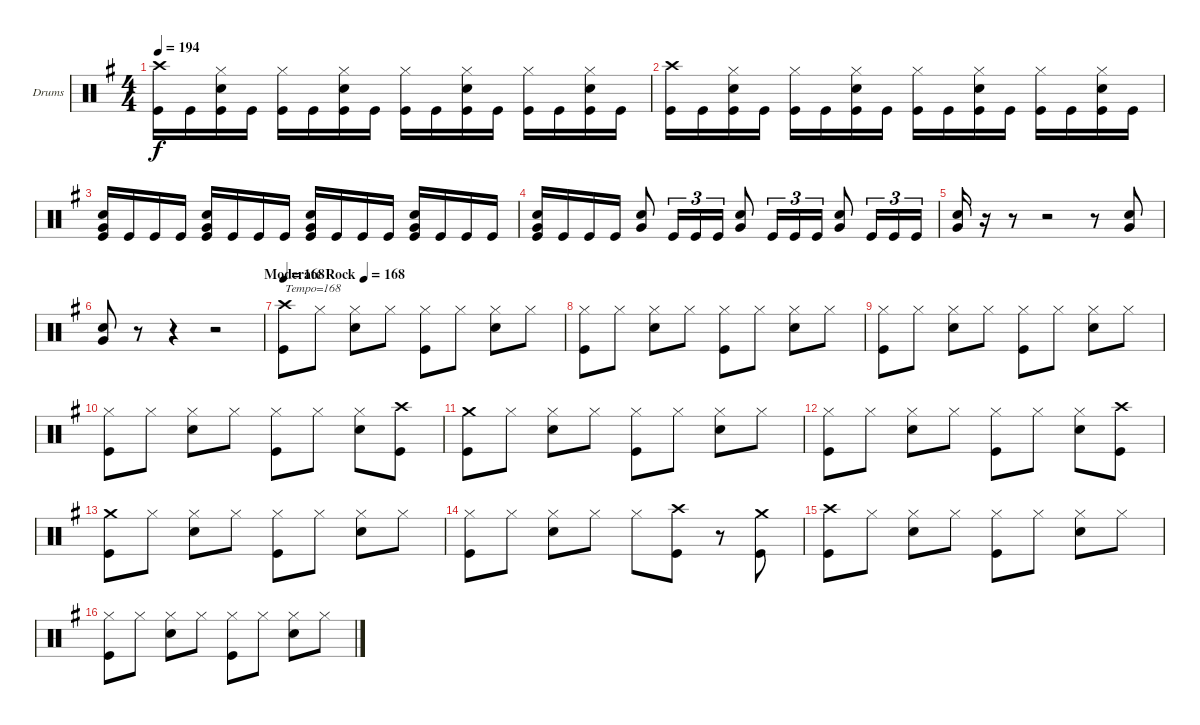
\bracketExtendMode groupsimilarinstruments
\firstSystemTrackNameOrientation horizontal
\otherSystemsTrackNameOrientation horizontal
\track ("Drumkit" "Drums") {instrument percussion}
\staff {score}
\articulation defaults
\ts (4 4)
\tempo 194
\clef neutral
\scale
1.04288
\ks g
("Crash high (hit)" "Kick (hit)").16{dy f} "Kick (hit)".16 ("Hi-Hat (closed)" "Snare (hit) 2" "Kick (hit)").16 "Kick (hit)".16 ("Hi-Hat (closed)" "Kick (hit)").16 "Kick (hit)".16 ("Hi-Hat (closed)" "Snare (hit) 2" "Kick (hit)").16 "Kick (hit)".16 ("Hi-Hat (closed)" "Kick (hit)").16 "Kick (hit)".16 ("Hi-Hat (closed)" "Snare (hit) 2" "Kick (hit)").16 "Kick (hit)".16 ("Hi-Hat (closed)" "Kick (hit)").16 "Kick (hit)".16 ("Hi-Hat (closed)" "Snare (hit) 2" "Kick (hit)").16 "Kick (hit)".16 |
\scale
0.957125 ("Crash high (hit)" "Kick (hit)").16 "Kick (hit)".16 ("Hi-Hat (closed)" "Snare (hit) 2" "Kick (hit)").16 "Kick (hit)".16 ("Hi-Hat (closed)" "Kick (hit)").16 "Kick (hit)".16 ("Hi-Hat (closed)" "Snare (hit) 2" "Kick (hit)").16 "Kick (hit)".16 ("Hi-Hat (closed)" "Kick (hit)").16 "Kick (hit)".16 ("Hi-Hat (closed)" "Snare (hit) 2" "Kick (hit)").16 "Kick (hit)".16 ("Hi-Hat (closed)" "Kick (hit)").16 "Kick (hit)".16 ("Hi-Hat (closed)" "Snare (hit) 2" "Kick (hit)").16 "Kick (hit)".16 |
\scale
1.04288 ("Very Low Tom (hit)" "Snare (hit) 2" "Kick (hit)").16 "Kick (hit)".16 "Kick (hit)".16 "Kick (hit)".16 ("Very Low Tom (hit)" "Snare (hit) 2" "Kick (hit)").16 "Kick (hit)".16 "Kick (hit)".16 "Kick (hit)".16 ("Very Low Tom (hit)" "Snare (hit) 2" "Kick (hit)").16 "Kick (hit)".16 "Kick (hit)".16 "Kick (hit)".16 ("Very Low Tom (hit)" "Snare (hit) 2" "Kick (hit)").16 "Kick (hit)".16 "Kick (hit)".16 "Kick (hit)".16 |
\scale
0.957125 ("Very Low Tom (hit)" "Snare (hit) 2" "Kick (hit)").16 "Kick (hit)".16 "Kick (hit)".16 "Kick (hit)".16 ("Very Low Tom (hit)" "Snare (hit) 2").8 "Kick (hit)".16{tu (3 2)} "Kick (hit)".16{tu (3 2)} "Kick (hit)".16{tu (3 2)} ("Very Low Tom (hit)" "Snare (hit) 2").8 "Kick (hit)".16{tu (3 2)} "Kick (hit)".16{tu (3 2)} "Kick (hit)".16{tu (3 2)} ("Very Low Tom (hit)" "Snare (hit) 2").8 "Kick (hit)".16{tu (3 2)} "Kick (hit)".16{tu (3 2)} "Kick (hit)".16{tu (3 2)} |
\scale
1.04288 ("Very Low Tom (hit)" "Snare (hit) 2").16 r.16 r.8 r.2 r.8 ("Very Low Tom (hit)" "Snare (hit) 2").8 |
\tempo (168 "Moderate Rock" 1)
\scale
0.957125 ("Very Low Tom (hit)" "Snare (hit) 2").8 r.8 r.4 r.2 |
\tempo 168
\scale
1.04288 ("Crash high (hit)" "Kick (hit)").8{txt "Tempo=168"} "Hi-Hat (closed)".8 ("Hi-Hat (closed)" "Snare (hit) 2").8 "Hi-Hat (closed)".8 ("Hi-Hat (closed)" "Kick (hit)").8 "Hi-Hat (closed)".8 ("Hi-Hat (closed)" "Snare (hit) 2").8 "Hi-Hat (closed)".8 |
\scale
0.957125 ("Hi-Hat (closed)" "Kick (hit)").8 "Hi-Hat (closed)".8 ("Hi-Hat (closed)" "Snare (hit) 2").8 "Hi-Hat (closed)".8 ("Hi-Hat (closed)" "Kick (hit)").8 "Hi-Hat (closed)".8 ("Hi-Hat (closed)" "Snare (hit) 2").8 "Hi-Hat (closed)".8 |
\scale
1.04288 ("Hi-Hat (closed)" "Kick (hit)").8 "Hi-Hat (closed)".8 ("Hi-Hat (closed)" "Snare (hit) 2").8 "Hi-Hat (closed)".8 ("Hi-Hat (closed)" "Kick (hit)").8 "Hi-Hat (closed)".8 ("Hi-Hat (closed)" "Snare (hit) 2").8 "Hi-Hat (closed)".8 |
\scale
0.957125 ("Hi-Hat (closed)" "Kick (hit)").8 "Hi-Hat (closed)".8 ("Hi-Hat (closed)" "Snare (hit) 2").8 "Hi-Hat (closed)".8 ("Hi-Hat (closed)" "Kick (hit)").8 "Hi-Hat (closed)".8 ("Hi-Hat (closed)" "Snare (hit) 2").8 ("Crash high (hit)" "Kick (hit)").8 |
\scale
1.04288 ("Crash medium (hit)" "Kick (hit)").8 "Hi-Hat (closed)".8 ("Hi-Hat (closed)" "Snare (hit) 2").8 "Hi-Hat (closed)".8 ("Hi-Hat (closed)" "Kick (hit)").8 "Hi-Hat (closed)".8 ("Hi-Hat (closed)" "Snare (hit) 2").8 "Hi-Hat (closed)".8 |
\scale
0.957125 ("Hi-Hat (closed)" "Kick (hit)").8 "Hi-Hat (closed)".8 ("Hi-Hat (closed)" "Snare (hit) 2").8 "Hi-Hat (closed)".8 ("Hi-Hat (closed)" "Kick (hit)").8 "Hi-Hat (closed)".8 ("Hi-Hat (closed)" "Snare (hit) 2").8 ("Crash high (hit)" "Kick (hit)").8 |
\scale
1.04288 ("Crash medium (hit)" "Kick (hit)").8 "Hi-Hat (closed)".8 ("Hi-Hat (closed)" "Snare (hit) 2").8 "Hi-Hat (closed)".8 ("Hi-Hat (closed)" "Kick (hit)").8 "Hi-Hat (closed)".8 ("Hi-Hat (closed)" "Snare (hit) 2").8 "Hi-Hat (closed)".8 |
\scale
0.957125 ("Hi-Hat (closed)" "Kick (hit)").8 "Hi-Hat (closed)".8 ("Hi-Hat (closed)" "Snare (hit) 2").8 "Hi-Hat (closed)".8 "Hi-Hat (closed)".8 ("Crash high (hit)" "Kick (hit)").8 r.8 ("Crash medium (hit)" "Kick (hit)").8 |
\scale
1.04288 ("Crash high (hit)" "Kick (hit)").8 "Hi-Hat (closed)".8 ("Hi-Hat (closed)" "Snare (hit) 2").8 "Hi-Hat (closed)".8 ("Hi-Hat (closed)" "Kick (hit)").8 "Hi-Hat (closed)".8 ("Hi-Hat (closed)" "Snare (hit) 2").8 "Hi-Hat (closed)".8 |
\scale
0.957125 ("Hi-Hat (closed)" "Kick (hit)").8 "Hi-Hat (closed)".8 ("Hi-Hat (closed)" "Snare (hit) 2").8 "Hi-Hat (closed)".8 ("Hi-Hat (closed)" "Kick (hit)").8 "Hi-Hat (closed)".8 ("Hi-Hat (closed)" "Snare (hit) 2").8 "Hi-Hat (closed)".8
